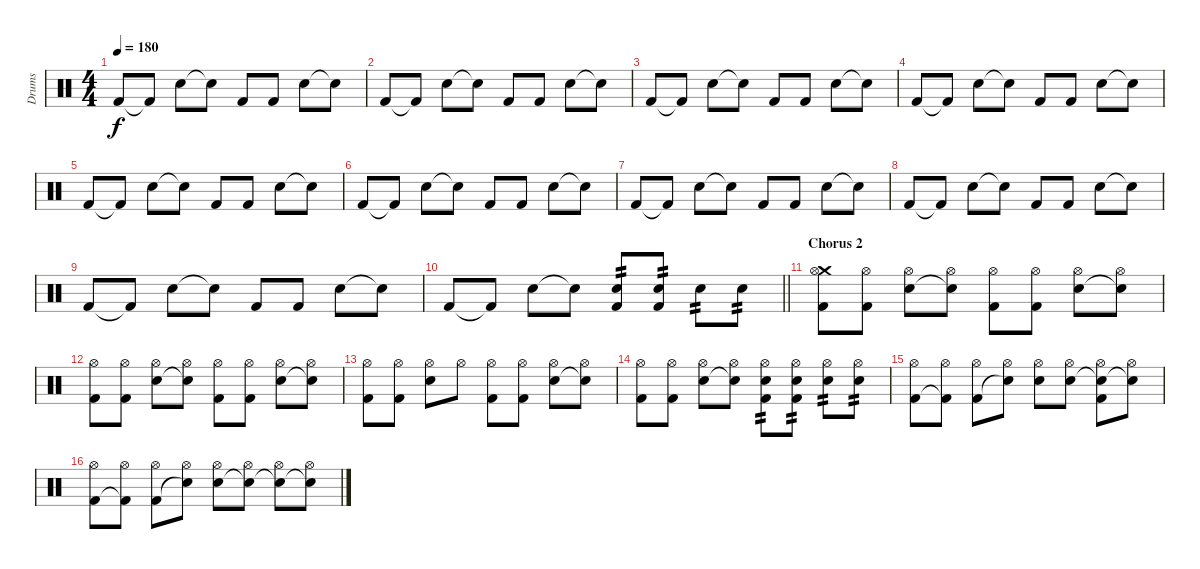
\track ("Drums" "Drums") {instrument percussion}
\staff {score}
\articulation defaults
\ts (4 4)
\tempo 180
\clef neutral
\ks c "Kick (hit) 2".8{dy f} "Kick (hit) 2"{t}.8 "Electric Snare (hit)".8 "Snare (hit)"{t}.8 "Kick (hit) 2".8 "Kick (hit) 2".8 "Electric Snare (hit)".8 "Snare (hit)"{t}.8
|
"Kick (hit) 2".8 "Kick (hit) 2"{t}.8 "Electric Snare (hit)".8 "Snare (hit)"{t}.8 "Kick (hit) 2".8 "Kick (hit) 2".8 "Electric Snare (hit)".8 "Snare (hit)"{t}.8 |
"Kick (hit) 2".8 "Kick (hit) 2"{t}.8 "Electric Snare (hit)".8 "Snare (hit)"{t}.8 "Kick (hit) 2".8 "Kick (hit) 2".8 "Electric Snare (hit)".8 "Snare (hit)"{t}.8 |
"Kick (hit) 2".8 "Kick (hit) 2"{t}.8 "Electric Snare (hit)".8 "Snare (hit)"{t}.8 "Kick (hit) 2".8 "Kick (hit) 2".8 "Electric Snare (hit)".8 "Snare (hit)"{t}.8 |
"Kick (hit) 2".8 "Kick (hit) 2"{t}.8 "Electric Snare (hit)".8 "Snare (hit)"{t}.8 "Kick (hit) 2".8 "Kick (hit) 2".8 "Electric Snare (hit)".8 "Snare (hit)"{t}.8 |
"Kick (hit) 2".8 "Kick (hit) 2"{t}.8 "Electric Snare (hit)".8 "Snare (hit)"{t}.8 "Kick (hit) 2".8 "Kick (hit) 2".8 "Electric Snare (hit)".8 "Snare (hit)"{t}.8 |
"Kick (hit) 2".8 "Kick (hit) 2"{t}.8 "Electric Snare (hit)".8 "Snare (hit)"{t}.8 "Kick (hit) 2".8 "Kick (hit) 2".8 "Electric Snare (hit)".8 "Snare (hit)"{t}.8 |
"Kick (hit) 2".8 "Kick (hit) 2"{t}.8 "Electric Snare (hit)".8 "Snare (hit)"{t}.8 "Kick (hit) 2".8 "Kick (hit) 2".8 "Electric Snare (hit)".8 "Snare (hit)"{t}.8 |
"Kick (hit) 2".8 "Kick (hit) 2"{t}.8 "Electric Snare (hit)".8 "Snare (hit)"{t}.8 "Kick (hit) 2".8 "Kick (hit) 2".8 "Electric Snare (hit)".8 "Snare (hit)"{t}.8 |
\barLineRight lightlight "Kick (hit) 2".8 "Kick (hit) 2"{t}.8 "Electric Snare (hit)".8 "Snare (hit)"{t}.8
("Electric Snare (hit)" "Kick (hit) 2").8{tp 2} ("Electric Snare (hit)" "Kick (hit) 2").8{tp 2} "Electric Snare (hit)".8{tp 2} "Electric Snare (hit)".8{tp 2} |
\section ("" "Chorus 2")
("Crash medium (hit)" "Hi-Hat (open)" "Kick (hit) 2").8 ("Hi-Hat (open)" "Kick (hit) 2").8 ("Hi-Hat (open)" "Electric Snare (hit)").8 ("Hi-Hat (open)" "Snare (hit)"{t}).8 ("Hi-Hat (open)" "Kick (hit) 2").8 ("Hi-Hat (open)" "Kick (hit) 2").8 ("Hi-Hat (open)" "Electric Snare (hit)").8 ("Hi-Hat (open)" "Snare (hit)"{t}).8 |
("Hi-Hat (open)" "Kick (hit) 2").8 ("Hi-Hat (open)" "Kick (hit) 2").8 ("Hi-Hat (open)" "Electric Snare (hit)").8 ("Hi-Hat (open)" "Snare (hit)"{t}).8 ("Hi-Hat (open)" "Kick (hit) 2").8 ("Hi-Hat (open)" "Kick (hit) 2").8 ("Hi-Hat (open)" "Electric Snare (hit)").8 ("Hi-Hat (open)" "Snare (hit)"{t}).8 |
("Hi-Hat (open)" "Kick (hit) 2").8 ("Hi-Hat (open)" "Kick (hit) 2").8 ("Hi-Hat (open)" "Electric Snare (hit)").8 "Hi-Hat (open)".8 ("Hi-Hat (open)" "Kick (hit) 2").8 ("Hi-Hat (open)" "Kick (hit) 2").8 ("Hi-Hat (open)" "Electric Snare (hit)").8 ("Hi-Hat (open)" "Snare (hit)"{t}).8 |
("Hi-Hat (open)" "Kick (hit) 2").8 ("Hi-Hat (open)" "Kick (hit) 2").8 ("Hi-Hat (open)" "Electric Snare (hit)").8 ("Hi-Hat (open)" "Snare (hit)"{t}).8 ("Hi-Hat (open)" "Electric Snare (hit)" "Kick (hit) 2").8{tp 2} ("Hi-Hat (open)" "Electric Snare (hit)" "Kick (hit) 2").8{tp 2} ("Hi-Hat (open)" "Electric Snare (hit)").8{tp 2} ("Hi-Hat (open)" "Electric Snare (hit)").8{tp 2} |
("Hi-Hat (open)" "Kick (hit) 2").8 ("Hi-Hat (open)" "Kick (hit) 2"{t}).8 ("Hi-Hat (open)" "Kick (hit) 2").8 ("Hi-Hat (open)" "Snare (hit)"{t}).8 ("Hi-Hat (open)" "Electric Snare (hit)").8 ("Hi-Hat (open)" "Electric Snare (hit)").8 ("Hi-Hat (open)" "Electric Snare (hit)"{t} "Kick (hit) 2").8 ("Hi-Hat (open)" "Snare (hit)"{t}).8 |
("Hi-Hat (open)" "Kick (hit) 2").8 ("Hi-Hat (open)" "Kick (hit) 2"{t}).8 ("Hi-Hat (open)" "Kick (hit) 2").8 ("Hi-Hat (open)" "Snare (hit)"{t}).8 ("Hi-Hat (open)" "Electric Snare (hit)").8 ("Hi-Hat (open)" "Electric Snare (hit)"{t}).8 ("Hi-Hat (open)" "Electric Snare (hit)"{t}).8 ("Hi-Hat (open)" "Snare (hit)"{t}).8
